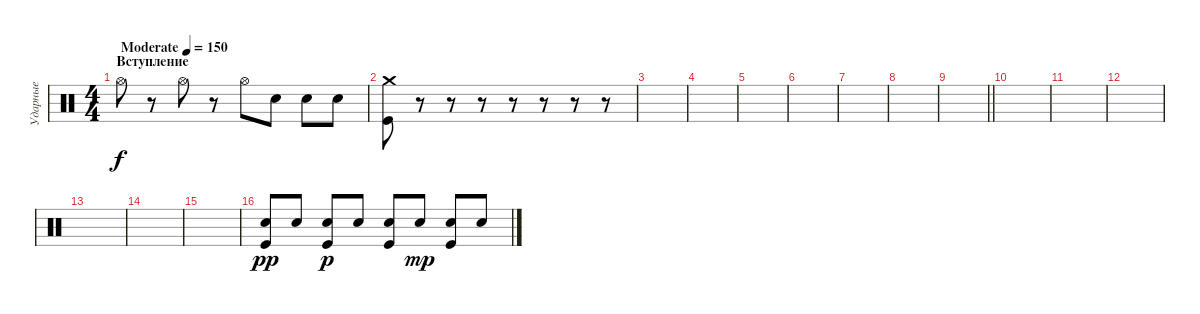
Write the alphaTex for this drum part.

\track ("Ударные" "Ударные") {instrument percussion}
\staff {score}
\articulation defaults
\ts (4 4)
\section ("" "Вступление")
\tempo (150 "Moderate")
\clef neutral
\ks c "Hi-Hat (open)".8{dy f}
r.8 "Hi-Hat (open)".8 r.8 "Hi-Hat (open)".8 "Electric Snare (hit)".8 "Electric Snare (hit)".8 "Electric Snare (hit)".8 |
("Crash medium (hit)" "Kick (hit)").8 r.8 r.8 r.8 r.8 r.8 r.8 r.8 |
|
|
|
|
|
|
\barLineRight lightlight
|
\section ("" " ")
|
|
|
|
|
|
("Electric Snare (hit)" "Kick (hit)").8{dy pp} "Electric Snare (hit)".8 ("Electric Snare (hit)" "Kick (hit)").8{dy p} "Electric Snare (hit)".8 ("Electric Snare (hit)" "Kick (hit)").8 "Electric Snare (hit)".8{dy mp} ("Electric Snare (hit)" "Kick (hit)").8 "Electric Snare (hit)".8
